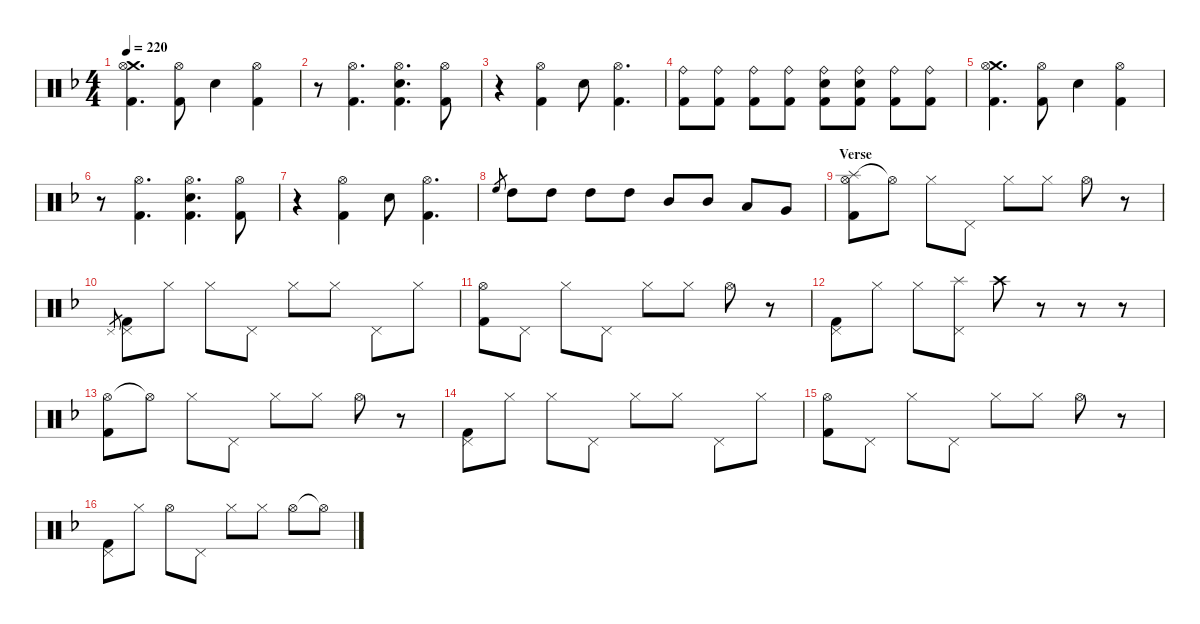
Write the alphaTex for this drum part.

\hideDynamics
\bracketExtendMode nobrackets
\singleTrackTrackNamePolicy hidden
\multiTrackTrackNamePolicy hidden
\firstSystemTrackNameMode fullname
\firstSystemTrackNameOrientation horizontal
\otherSystemsTrackNameOrientation horizontal
\track ("Drumkit" "Drums") {instrument percussion}
\staff {score}
\articulation defaults
\ts (4 4)
\tempo 220
\clef neutral
\ks dminor
("Crash medium (hit)"{acc forcenatural} "Hi-Hat (open)"{acc forcenatural} "Kick (hit) 2"{acc forcenatural}).4{d dy f beam Down} ("Hi-Hat (open)"{acc forcenatural} "Kick (hit) 2"{acc forcenatural}).8{beam Down} "Snare (hit) 2"{acc forcenatural}.4{beam Down} ("Hi-Hat (open)"{acc forcenatural} "Kick (hit) 2"{acc forcenatural}).4{beam Down} |
r.8{beam Down} ("Hi-Hat (open)"{acc forcenatural} "Kick (hit) 2"{acc forcenatural}).4{d beam Down} ("Hi-Hat (open)"{acc forcenatural} "Snare (hit) 2"{acc forcenatural} "Kick (hit) 2"{acc forcenatural}).4{d beam Down} ("Hi-Hat (open)"{acc forcenatural} "Kick (hit) 2"{acc forcenatural}).8{beam Down} |
r.4{beam Down} ("Hi-Hat (open)"{acc forcenatural} "Kick (hit) 2"{acc forcenatural}).4{beam Down} "Snare (hit) 2"{acc forcenatural}.8{beam Down} ("Hi-Hat (open)"{acc forcenatural} "Kick (hit) 2"{acc forcenatural}).4{d beam Down} |
("Ride (bell)"{acc forcenatural} "Kick (hit) 2"{acc forcenatural}).8{beam Down} ("Ride (bell)"{acc forcenatural} "Kick (hit) 2"{acc forcenatural}).8{beam Down} ("Ride (bell)"{acc forcenatural} "Kick (hit) 2"{acc forcenatural}).8{dy mp beam Down} ("Ride (bell)"{acc forcenatural} "Kick (hit) 2"{acc forcenatural}).8{beam Down} ("Ride (bell)"{acc forcenatural} "Snare (hit) 2"{acc forcenatural} "Kick (hit) 2"{acc forcenatural}).8{dy f beam Down} ("Ride (bell)"{acc forcenatural} "Snare (hit) 2"{acc forcenatural} "Kick (hit) 2"{acc forcenatural}).8{beam Down} ("Ride (bell)"{acc forcenatural} "Kick (hit) 2"{acc forcenatural}).8{dy mp beam Down} ("Ride (bell)"{acc forcenatural} "Kick (hit) 2"{acc forcenatural}).8{beam Down} |
("Crash medium (hit)"{acc forcenatural} "Hi-Hat (open)"{acc forcenatural} "Kick (hit) 2"{acc forcenatural}).4{d dy f beam Down} ("Hi-Hat (open)"{acc forcenatural} "Kick (hit) 2"{acc forcenatural}).8{beam Down} "Snare (hit) 2"{acc forcenatural}.4{beam Down} ("Hi-Hat (open)"{acc forcenatural} "Kick (hit) 2"{acc forcenatural}).4{beam Down} |
r.8{beam Down} ("Hi-Hat (open)"{acc forcenatural} "Kick (hit) 2"{acc forcenatural}).4{d beam Down} ("Hi-Hat (open)"{acc forcenatural} "Snare (hit) 2"{acc forcenatural} "Kick (hit) 2"{acc forcenatural}).4{d beam Down} ("Hi-Hat (open)"{acc forcenatural} "Kick (hit) 2"{acc forcenatural}).8{beam Down} |
r.4{beam Down} ("Hi-Hat (open)"{acc forcenatural} "Kick (hit) 2"{acc forcenatural}).4{beam Down} "Snare (hit) 2"{acc forcenatural}.8{beam Down} ("Hi-Hat (open)"{acc forcenatural} "Kick (hit) 2"{acc forcenatural}).4{d beam Down} |
"High Floor Tom (hit)"{acc forcenatural}.8{gr dy mp beam Up} "High Tom (hit)"{acc forcenatural}.8{dy f beam Down} "High Tom (hit)"{acc forcenatural}.8{beam Down} "High Tom (hit)"{acc forcenatural}.8{beam Down} "High Tom (hit)"{acc forcenatural}.8{beam Down} "Mid Tom (hit)"{acc forcenatural}.8{beam Up} "Mid Tom (hit)"{acc forcenatural}.8{beam Up} "Low Tom (hit)"{acc forcenatural}.8{beam Up} "Very Low Tom (hit)"{acc forcenatural}.8{beam Up} |
\section ("" "Verse")
("Splash (hit)"{acc forcenatural} "Hi-Hat (open)"{acc forcenatural} "Kick (hit) 2"{acc forcenatural}).8{dy mp beam Down} "Hi-Hat (open)"{t acc forcenatural}.8{beam Down} "Hi-Hat (closed)"{acc forcenatural}.8{dy p beam Down} "Pedal Hi-Hat (hit)"{acc forcenatural}.8{beam Down} "Hi-Hat (closed)"{acc forcenatural}.8{dy mp beam Down} "Hi-Hat (closed)"{acc forcenatural}.8{beam Down} "Hi-Hat (open)"{acc forcenatural}.8{beam Down} r.8{beam Down} |
"Pedal Hi-Hat (hit)"{acc forcenatural}.8{gr dy p beam Up} ("Pedal Hi-Hat (hit)"{acc forcenatural} "Kick (hit) 2"{acc forcenatural}).8{beam Down} "Hi-Hat (closed)"{acc forcenatural}.8{beam Down} "Hi-Hat (closed)"{acc forcenatural}.8{dy mp beam Down} "Pedal Hi-Hat (hit)"{acc forcenatural}.8{dy mf beam Down} "Hi-Hat (closed)"{acc forcenatural}.8{dy mp beam Down} "Hi-Hat (closed)"{acc forcenatural}.8{beam Down} "Pedal Hi-Hat (hit)"{acc forcenatural}.8{dy p beam Down} "Hi-Hat (closed)"{acc forcenatural}.8{beam Down} |
("Hi-Hat (open)"{acc forcenatural} "Kick (hit) 2"{acc forcenatural}).8{dy mp beam Down} "Pedal Hi-Hat (hit)"{acc forcenatural}.8{beam Down} "Hi-Hat (closed)"{acc forcenatural}.8{dy p beam Down} "Pedal Hi-Hat (hit)"{acc forcenatural}.8{beam Down} "Hi-Hat (closed)"{acc forcenatural}.8{dy mp beam Down} "Hi-Hat (closed)"{acc forcenatural}.8{beam Down} "Hi-Hat (open)"{acc forcenatural}.8{beam Down} r.8{beam Down} |
("Pedal Hi-Hat (hit)"{acc forcenatural} "Kick (hit) 2"{acc forcenatural}).8{dy p beam Down} "Hi-Hat (closed)"{acc forcenatural}.8{beam Down} "Hi-Hat (closed)"{acc forcenatural}.8{dy mp beam Down} ("Splash (hit)"{acc forcenatural} "Pedal Hi-Hat (hit)"{acc forcenatural}).8{dy mf beam Down} "Crash high (hit)"{acc forcenatural}.8{dy mp beam Down} r.8{beam Down} r.8{beam Down} r.8{beam Down} |
("Hi-Hat (open)"{acc forcenatural} "Kick (hit) 2"{acc forcenatural}).8{beam Down} "Hi-Hat (open)"{t acc forcenatural}.8{beam Down} "Hi-Hat (closed)"{acc forcenatural}.8{dy p beam Down} "Pedal Hi-Hat (hit)"{acc forcenatural}.8{beam Down} "Hi-Hat (closed)"{acc forcenatural}.8{dy mp beam Down} "Hi-Hat (closed)"{acc forcenatural}.8{beam Down} "Hi-Hat (open)"{acc forcenatural}.8{beam Down} r.8{beam Down} |
("Pedal Hi-Hat (hit)"{acc forcenatural} "Kick (hit) 2"{acc forcenatural}).8{dy p beam Down} "Hi-Hat (closed)"{acc forcenatural}.8{beam Down} "Hi-Hat (closed)"{acc forcenatural}.8{dy mp beam Down} "Pedal Hi-Hat (hit)"{acc forcenatural}.8{dy mf beam Down} "Hi-Hat (closed)"{acc forcenatural}.8{dy mp beam Down} "Hi-Hat (closed)"{acc forcenatural}.8{beam Down} "Pedal Hi-Hat (hit)"{acc forcenatural}.8{dy p beam Down} "Hi-Hat (closed)"{acc forcenatural}.8{beam Down} |
("Hi-Hat (open)"{acc forcenatural} "Kick (hit) 2"{acc forcenatural}).8{dy mp beam Down} "Pedal Hi-Hat (hit)"{acc forcenatural}.8{beam Down} "Hi-Hat (closed)"{acc forcenatural}.8{dy p beam Down} "Pedal Hi-Hat (hit)"{acc forcenatural}.8{beam Down} "Hi-Hat (closed)"{acc forcenatural}.8{dy mp beam Down} "Hi-Hat (closed)"{acc forcenatural}.8{beam Down} "Hi-Hat (open)"{acc forcenatural}.8{beam Down} r.8{beam Down} |
("Pedal Hi-Hat (hit)"{acc forcenatural} "Kick (hit) 2"{acc forcenatural}).8{dy p beam Down} "Hi-Hat (closed)"{acc forcenatural}.8{beam Down} "Hi-Hat (open)"{acc forcenatural}.8{dy mp beam Down} "Pedal Hi-Hat (hit)"{acc forcenatural}.8{dy f beam Down} "Hi-Hat (closed)"{acc forcenatural}.8{dy mp beam Down} "Hi-Hat (closed)"{acc forcenatural}.8{beam Down} "Hi-Hat (open)"{acc forcenatural}.8{dy p beam Down} "Hi-Hat (open)"{t acc forcenatural}.8{beam Down}
